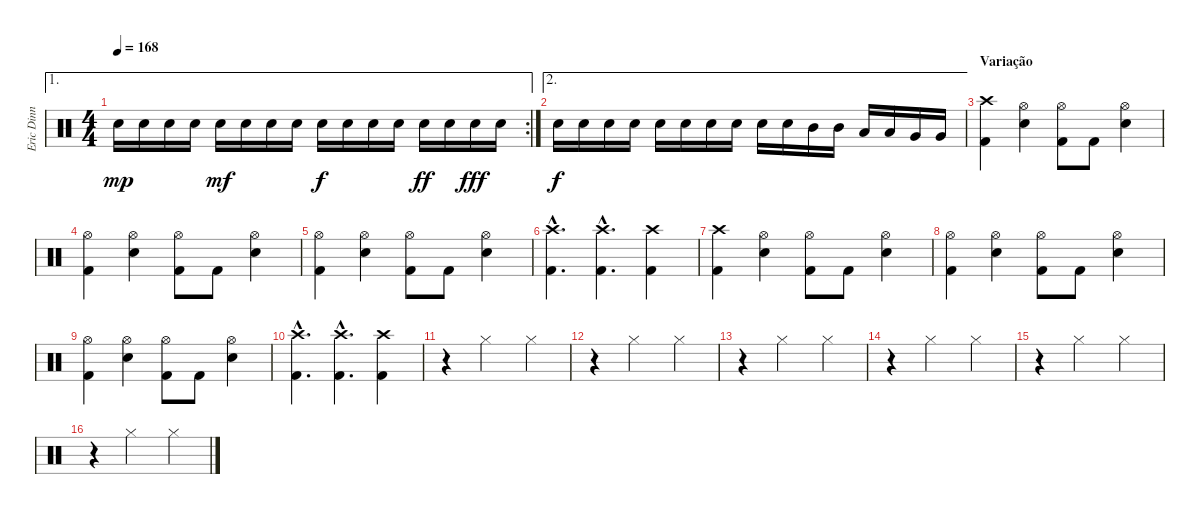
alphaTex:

\track ("Eric Dinn" "Eric Dinn") {instrument percussion}
\staff {score}
\articulation defaults
\ae 1
\rc 2
\ts (4 4)
\tempo 168
\clef neutral
\ks c "Snare (hit) 2".16{dy mp} "Snare (hit) 2".16 "Snare (hit) 2".16 "Snare (hit) 2".16 "Snare (hit) 2".16{dy mf} "Snare (hit) 2".16 "Snare (hit) 2".16 "Snare (hit) 2".16 "Snare (hit) 2".16{dy f} "Snare (hit) 2".16 "Snare (hit) 2".16 "Snare (hit) 2".16 "Snare (hit) 2".16{dy ff} "Snare (hit) 2".16 "Snare (hit) 2".16{dy fff} "Snare (hit) 2".16
|
\ae 2 "Snare (hit) 2".16{dy f} "Snare (hit) 2".16 "Snare (hit) 2".16 "Snare (hit) 2".16 "Snare (hit) 2".16 "Snare (hit) 2".16 "Snare (hit) 2".16 "Snare (hit) 2".16 "Snare (hit) 2".16 "Snare (hit) 2".16 "Mid Tom (hit)".16 "Mid Tom (hit)".16 "Low Tom (hit)".16 "Low Tom (hit)".16 "Very Low Tom (hit)".16 "Very Low Tom (hit)".16
|
\section ("" "Variação")
("Crash high (hit)" "Kick (hit) 2").4 ("Hi-Hat (open)" "Snare (hit) 2").4 ("Hi-Hat (open)" "Kick (hit) 2").8 "Kick (hit) 2".8 ("Hi-Hat (open)" "Snare (hit) 2").4 |
("Hi-Hat (open)" "Kick (hit) 2").4 ("Hi-Hat (open)" "Snare (hit) 2").4 ("Hi-Hat (open)" "Kick (hit) 2").8 "Kick (hit) 2".8 ("Hi-Hat (open)" "Snare (hit) 2").4 |
("Hi-Hat (open)" "Kick (hit) 2").4 ("Hi-Hat (open)" "Snare (hit) 2").4 ("Hi-Hat (open)" "Kick (hit) 2").8 "Kick (hit) 2".8 ("Hi-Hat (open)" "Snare (hit) 2").4 |
("Crash high (hit)"{hac} "Kick (hit) 2"{hac}).4{d} ("Crash high (hit)"{hac} "Kick (hit) 2"{hac}).4{d} ("Crash high (hit)" "Kick (hit) 2").4 |
("Crash high (hit)" "Kick (hit) 2").4 ("Hi-Hat (open)" "Snare (hit) 2").4 ("Hi-Hat (open)" "Kick (hit) 2").8 "Kick (hit) 2".8 ("Hi-Hat (open)" "Snare (hit) 2").4 |
("Hi-Hat (open)" "Kick (hit) 2").4 ("Hi-Hat (open)" "Snare (hit) 2").4 ("Hi-Hat (open)" "Kick (hit) 2").8 "Kick (hit) 2".8 ("Hi-Hat (open)" "Snare (hit) 2").4 |
("Hi-Hat (open)" "Kick (hit) 2").4 ("Hi-Hat (open)" "Snare (hit) 2").4 ("Hi-Hat (open)" "Kick (hit) 2").8 "Kick (hit) 2".8 ("Hi-Hat (open)" "Snare (hit) 2").4 |
("Crash high (hit)"{hac} "Kick (hit) 2"{hac}).4{d} ("Crash high (hit)"{hac} "Kick (hit) 2"{hac}).4{d} ("Crash high (hit)" "Kick (hit) 2").4 |
r.4 "Hi-Hat (closed)".2 "Hi-Hat (closed)".4 |
r.4 "Hi-Hat (closed)".2 "Hi-Hat (closed)".4 |
r.4 "Hi-Hat (closed)".2 "Hi-Hat (closed)".4 |
r.4 "Hi-Hat (closed)".2 "Hi-Hat (closed)".4 |
r.4 "Hi-Hat (closed)".2 "Hi-Hat (closed)".4 |
r.4 "Hi-Hat (closed)".2 "Hi-Hat (closed)".4
